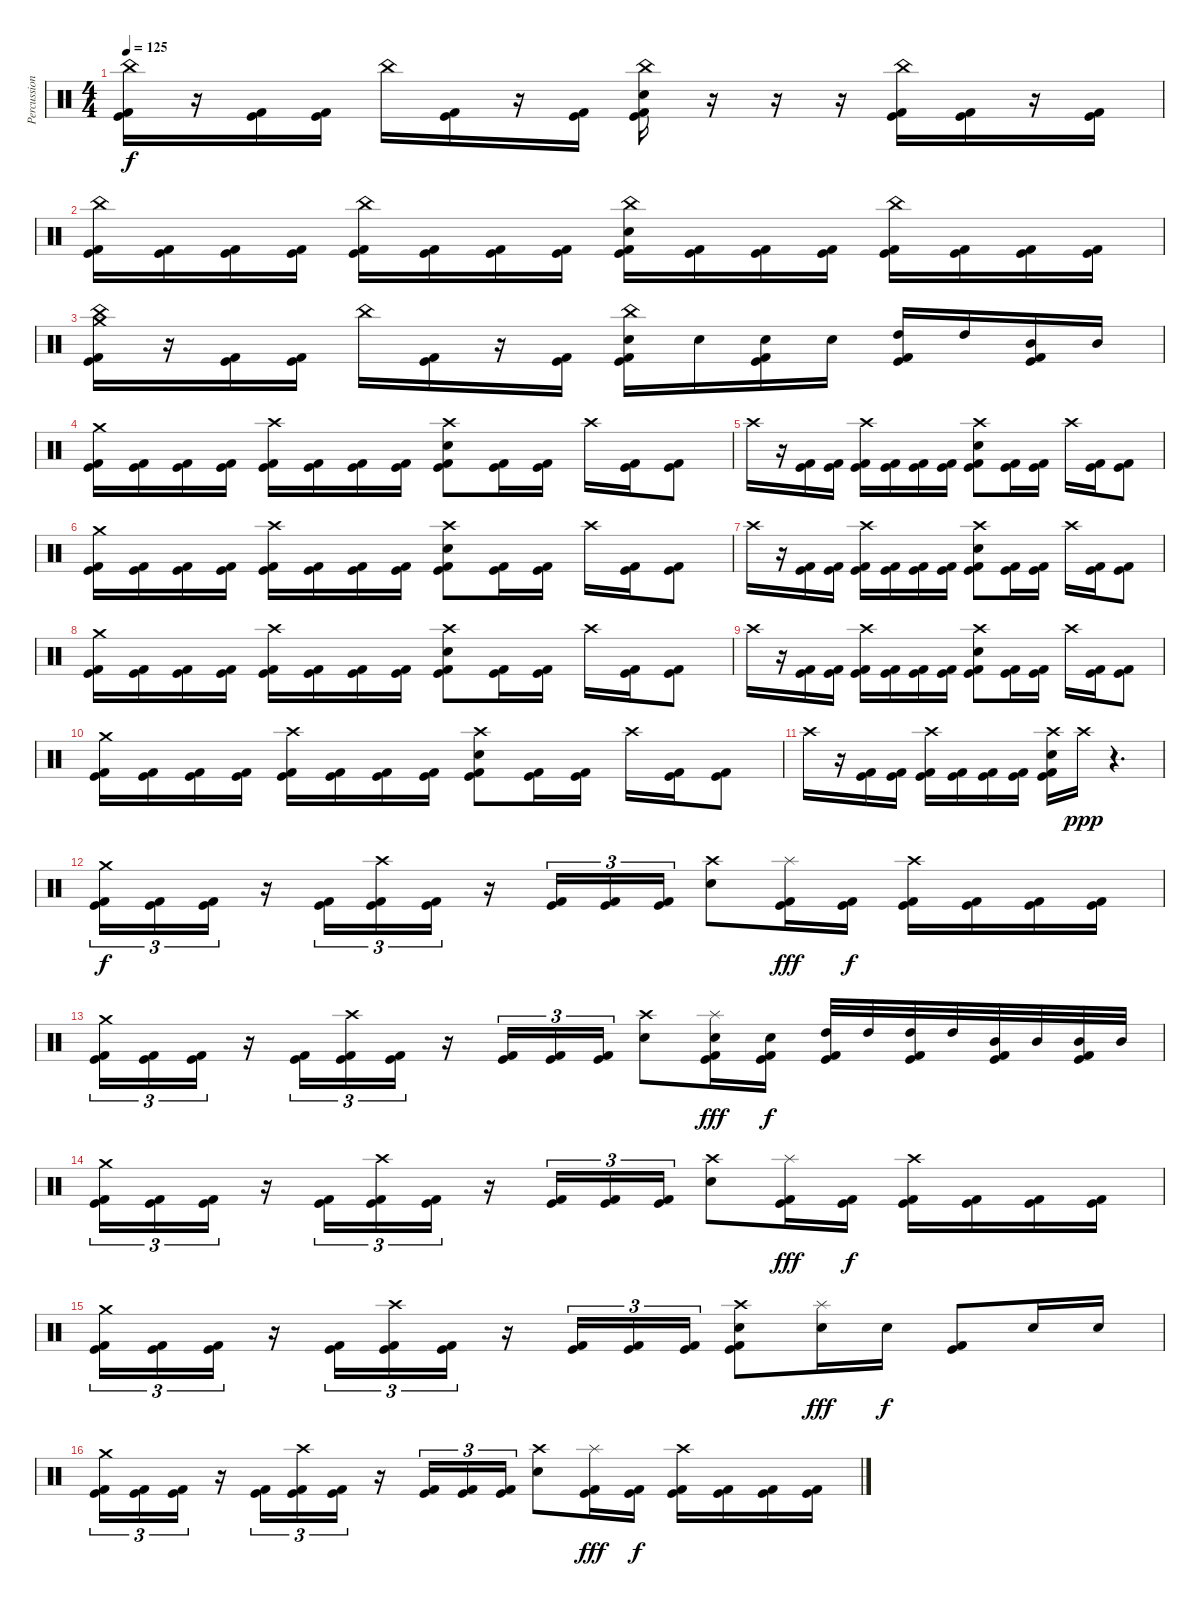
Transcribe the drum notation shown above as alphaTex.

\track ("Percussion" "Percussion") {instrument percussion}
\staff {score}
\articulation defaults
\ts (4 4)
\tempo 125
\clef neutral
\ks c
("China (hit)" "Kick (hit) 2" "Kick (hit)").16{dy f} r.16 ("Kick (hit) 2" "Kick (hit)").16 ("Kick (hit) 2" "Kick (hit)").16 "China (hit)".16 ("Kick (hit) 2" "Kick (hit)").16 r.16 ("Kick (hit) 2" "Kick (hit)").16 ("China (hit)" "Snare (hit) 2" "Kick (hit) 2" "Kick (hit)").16 r.16 r.16 r.16 ("China (hit)" "Kick (hit)" "Kick (hit) 2").16 ("Kick (hit)" "Kick (hit) 2").16 r.16 ("Kick (hit)" "Kick (hit) 2").16 |
("China (hit)" "Kick (hit) 2" "Kick (hit)").16 ("Kick (hit) 2" "Kick (hit)").16 ("Kick (hit) 2" "Kick (hit)").16 ("Kick (hit) 2" "Kick (hit)").16 ("China (hit)" "Kick (hit) 2" "Kick (hit)").16 ("Kick (hit) 2" "Kick (hit)").16 ("Kick (hit) 2" "Kick (hit)").16 ("Kick (hit) 2" "Kick (hit)").16 ("China (hit)" "Snare (hit) 2" "Kick (hit) 2" "Kick (hit)").16 ("Kick (hit) 2" "Kick (hit)").16 ("Kick (hit) 2" "Kick (hit)").16 ("Kick (hit) 2" "Kick (hit)").16 ("China (hit)" "Kick (hit) 2" "Kick (hit)").16 ("Kick (hit) 2" "Kick (hit)").16 ("Kick (hit) 2" "Kick (hit)").16 ("Kick (hit) 2" "Kick (hit)").16 |
("China (hit)" "Crash medium (hit)" "Kick (hit) 2" "Kick (hit)").16 r.16 ("Kick (hit) 2" "Kick (hit)").16 ("Kick (hit) 2" "Kick (hit)").16 "China (hit)".16 ("Kick (hit) 2" "Kick (hit)").16 r.16 ("Kick (hit) 2" "Kick (hit)").16 ("China (hit)" "Snare (hit) 2" "Kick (hit) 2" "Kick (hit)").16 "Snare (hit) 2".16 ("Snare (hit) 2" "Kick (hit) 2" "Kick (hit)").16 "Snare (hit) 2".16 ("High Tom (hit)" "Kick (hit) 2" "Kick (hit)").16 "High Tom (hit)".16 ("Mid Tom (hit)" "Kick (hit) 2" "Kick (hit)").16 "Mid Tom (hit)".16 |
("Crash medium (hit)" "Kick (hit)" "Kick (hit) 2").16 ("Kick (hit)" "Kick (hit) 2").16 ("Kick (hit)" "Kick (hit) 2").16 ("Kick (hit)" "Kick (hit) 2").16 ("Crash high (hit)" "Kick (hit)" "Kick (hit) 2").16 ("Kick (hit)" "Kick (hit) 2").16 ("Kick (hit)" "Kick (hit) 2").16 ("Kick (hit)" "Kick (hit) 2").16 ("Crash high (hit)" "Snare (hit) 2" "Kick (hit)" "Kick (hit) 2").8 ("Kick (hit)" "Kick (hit) 2").16 ("Kick (hit)" "Kick (hit) 2").16 "Crash high (hit)".16 ("Kick (hit)" "Kick (hit) 2").16 ("Kick (hit)" "Kick (hit) 2").8 |
"Crash high (hit)".16 r.16 ("Kick (hit)" "Kick (hit) 2").16 ("Kick (hit)" "Kick (hit) 2").16 ("Crash high (hit)" "Kick (hit)" "Kick (hit) 2").16 ("Kick (hit)" "Kick (hit) 2").16 ("Kick (hit)" "Kick (hit) 2").16 ("Kick (hit)" "Kick (hit) 2").16 ("Crash high (hit)" "Snare (hit) 2" "Kick (hit)" "Kick (hit) 2").8 ("Kick (hit)" "Kick (hit) 2").16 ("Kick (hit)" "Kick (hit) 2").16 "Crash high (hit)".16 ("Kick (hit)" "Kick (hit) 2").16 ("Kick (hit)" "Kick (hit) 2").8 |
("Crash medium (hit)" "Kick (hit)" "Kick (hit) 2").16 ("Kick (hit)" "Kick (hit) 2").16 ("Kick (hit)" "Kick (hit) 2").16 ("Kick (hit)" "Kick (hit) 2").16 ("Crash high (hit)" "Kick (hit)" "Kick (hit) 2").16 ("Kick (hit)" "Kick (hit) 2").16 ("Kick (hit)" "Kick (hit) 2").16 ("Kick (hit)" "Kick (hit) 2").16 ("Crash high (hit)" "Snare (hit) 2" "Kick (hit)" "Kick (hit) 2").8 ("Kick (hit)" "Kick (hit) 2").16 ("Kick (hit)" "Kick (hit) 2").16 "Crash high (hit)".16 ("Kick (hit)" "Kick (hit) 2").16 ("Kick (hit)" "Kick (hit) 2").8 |
"Crash high (hit)".16 r.16 ("Kick (hit)" "Kick (hit) 2").16 ("Kick (hit)" "Kick (hit) 2").16 ("Crash high (hit)" "Kick (hit)" "Kick (hit) 2").16 ("Kick (hit)" "Kick (hit) 2").16 ("Kick (hit)" "Kick (hit) 2").16 ("Kick (hit)" "Kick (hit) 2").16 ("Crash high (hit)" "Snare (hit) 2" "Kick (hit)" "Kick (hit) 2").8 ("Kick (hit)" "Kick (hit) 2").16 ("Kick (hit)" "Kick (hit) 2").16 "Crash high (hit)".16 ("Kick (hit)" "Kick (hit) 2").16 ("Kick (hit)" "Kick (hit) 2").8 |
("Crash medium (hit)" "Kick (hit)" "Kick (hit) 2").16 ("Kick (hit)" "Kick (hit) 2").16 ("Kick (hit)" "Kick (hit) 2").16 ("Kick (hit)" "Kick (hit) 2").16 ("Crash high (hit)" "Kick (hit)" "Kick (hit) 2").16 ("Kick (hit)" "Kick (hit) 2").16 ("Kick (hit)" "Kick (hit) 2").16 ("Kick (hit)" "Kick (hit) 2").16 ("Crash high (hit)" "Snare (hit) 2" "Kick (hit)" "Kick (hit) 2").8 ("Kick (hit)" "Kick (hit) 2").16 ("Kick (hit)" "Kick (hit) 2").16 "Crash high (hit)".16 ("Kick (hit)" "Kick (hit) 2").16 ("Kick (hit)" "Kick (hit) 2").8 |
"Crash high (hit)".16 r.16 ("Kick (hit)" "Kick (hit) 2").16 ("Kick (hit)" "Kick (hit) 2").16 ("Crash high (hit)" "Kick (hit)" "Kick (hit) 2").16 ("Kick (hit)" "Kick (hit) 2").16 ("Kick (hit)" "Kick (hit) 2").16 ("Kick (hit)" "Kick (hit) 2").16 ("Crash high (hit)" "Snare (hit) 2" "Kick (hit)" "Kick (hit) 2").8 ("Kick (hit)" "Kick (hit) 2").16 ("Kick (hit)" "Kick (hit) 2").16 "Crash high (hit)".16 ("Kick (hit)" "Kick (hit) 2").16 ("Kick (hit)" "Kick (hit) 2").8 |
("Crash medium (hit)" "Kick (hit)" "Kick (hit) 2").16 ("Kick (hit)" "Kick (hit) 2").16 ("Kick (hit)" "Kick (hit) 2").16 ("Kick (hit)" "Kick (hit) 2").16 ("Crash high (hit)" "Kick (hit)" "Kick (hit) 2").16 ("Kick (hit)" "Kick (hit) 2").16 ("Kick (hit)" "Kick (hit) 2").16 ("Kick (hit)" "Kick (hit) 2").16 ("Crash high (hit)" "Snare (hit) 2" "Kick (hit)" "Kick (hit) 2").8 ("Kick (hit)" "Kick (hit) 2").16 ("Kick (hit)" "Kick (hit) 2").16 "Crash high (hit)".16 ("Kick (hit)" "Kick (hit) 2").16 ("Kick (hit)" "Kick (hit) 2").8 |
"Crash high (hit)".16 r.16 ("Kick (hit)" "Kick (hit) 2").16 ("Kick (hit)" "Kick (hit) 2").16 ("Crash high (hit)" "Kick (hit)" "Kick (hit) 2").16 ("Kick (hit)" "Kick (hit) 2").16 ("Kick (hit)" "Kick (hit) 2").16 ("Kick (hit)" "Kick (hit) 2").16 ("Crash high (hit)" "Snare (hit) 2" "Kick (hit)" "Kick (hit) 2").16 "Crash high (hit)".16{dy ppp} r.4{d} |
("Crash medium (hit)" "Kick (hit)" "Kick (hit) 2").16{tu (3 2) dy f volume 16} ("Kick (hit)" "Kick (hit) 2").16{tu (3 2)} ("Kick (hit)" "Kick (hit) 2").16{tu (3 2)} r.16 ("Kick (hit)" "Kick (hit) 2").16{tu (3 2)} ("Crash high (hit)" "Kick (hit)" "Kick (hit) 2").16{tu (3 2)} ("Kick (hit)" "Kick (hit) 2").16{tu (3 2)} r.16 ("Kick (hit)" "Kick (hit) 2").16{tu (3 2)} ("Kick (hit)" "Kick (hit) 2").16{tu (3 2)} ("Kick (hit)" "Kick (hit) 2").16{tu (3 2)} ("Crash high (hit)" "Snare (hit) 2").8 ("Splash (hit)" "Kick (hit)" "Kick (hit) 2").16{dy fff} ("Kick (hit)" "Kick (hit) 2").16{dy f} ("Crash high (hit)" "Kick (hit)" "Kick (hit) 2").16 ("Kick (hit)" "Kick (hit) 2").16 ("Kick (hit)" "Kick (hit) 2").16 ("Kick (hit)" "Kick (hit) 2").16 |
("Crash medium (hit)" "Kick (hit)" "Kick (hit) 2").16{tu (3 2)} ("Kick (hit)" "Kick (hit) 2").16{tu (3 2)} ("Kick (hit)" "Kick (hit) 2").16{tu (3 2)} r.16 ("Kick (hit)" "Kick (hit) 2").16{tu (3 2)} ("Crash high (hit)" "Kick (hit)" "Kick (hit) 2").16{tu (3 2)} ("Kick (hit)" "Kick (hit) 2").16{tu (3 2)} r.16 ("Kick (hit)" "Kick (hit) 2").16{tu (3 2)} ("Kick (hit)" "Kick (hit) 2").16{tu (3 2)} ("Kick (hit)" "Kick (hit) 2").16{tu (3 2)} ("Crash high (hit)" "Snare (hit) 2").8 ("Splash (hit)" "Snare (hit) 2" "Kick (hit)" "Kick (hit) 2").16{dy fff} ("Snare (hit) 2" "Kick (hit)" "Kick (hit) 2").16{dy f} ("High Tom (hit)" "Kick (hit)" "Kick (hit) 2").32 "High Tom (hit)".32 ("High Tom (hit)" "Kick (hit)" "Kick (hit) 2").32 "High Tom (hit)".32 ("Mid Tom (hit)" "Kick (hit)" "Kick (hit) 2").32 "Mid Tom (hit)".32 ("Mid Tom (hit)" "Kick (hit)" "Kick (hit) 2").32 "Mid Tom (hit)".32 |
("Crash medium (hit)" "Kick (hit)" "Kick (hit) 2").16{tu (3 2)} ("Kick (hit)" "Kick (hit) 2").16{tu (3 2)} ("Kick (hit)" "Kick (hit) 2").16{tu (3 2)} r.16 ("Kick (hit)" "Kick (hit) 2").16{tu (3 2)} ("Crash high (hit)" "Kick (hit)" "Kick (hit) 2").16{tu (3 2)} ("Kick (hit)" "Kick (hit) 2").16{tu (3 2)} r.16 ("Kick (hit)" "Kick (hit) 2").16{tu (3 2)} ("Kick (hit)" "Kick (hit) 2").16{tu (3 2)} ("Kick (hit)" "Kick (hit) 2").16{tu (3 2)} ("Crash high (hit)" "Snare (hit) 2").8 ("Splash (hit)" "Kick (hit)" "Kick (hit) 2").16{dy fff} ("Kick (hit)" "Kick (hit) 2").16{dy f} ("Crash high (hit)" "Kick (hit)" "Kick (hit) 2").16 ("Kick (hit)" "Kick (hit) 2").16 ("Kick (hit)" "Kick (hit) 2").16 ("Kick (hit)" "Kick (hit) 2").16 |
("Crash medium (hit)" "Kick (hit)" "Kick (hit) 2").16{tu (3 2)} ("Kick (hit)" "Kick (hit) 2").16{tu (3 2)} ("Kick (hit)" "Kick (hit) 2").16{tu (3 2)} r.16 ("Kick (hit)" "Kick (hit) 2").16{tu (3 2)} ("Crash high (hit)" "Kick (hit)" "Kick (hit) 2").16{tu (3 2)} ("Kick (hit)" "Kick (hit) 2").16{tu (3 2)} r.16 ("Kick (hit)" "Kick (hit) 2").16{tu (3 2)} ("Kick (hit)" "Kick (hit) 2").16{tu (3 2)} ("Kick (hit)" "Kick (hit) 2").16{tu (3 2)} ("Crash high (hit)" "Snare (hit) 2" "Kick (hit)" "Kick (hit) 2").8 ("Splash (hit)" "Snare (hit) 2").16{dy fff} "Snare (hit) 2".16{dy f} ("Kick (hit)" "Kick (hit) 2").8 "Snare (hit) 2".16 "Snare (hit) 2".16 |
("Crash medium (hit)" "Kick (hit)" "Kick (hit) 2").16{tu (3 2)} ("Kick (hit)" "Kick (hit) 2").16{tu (3 2)} ("Kick (hit)" "Kick (hit) 2").16{tu (3 2)} r.16 ("Kick (hit)" "Kick (hit) 2").16{tu (3 2)} ("Crash high (hit)" "Kick (hit)" "Kick (hit) 2").16{tu (3 2)} ("Kick (hit)" "Kick (hit) 2").16{tu (3 2)} r.16 ("Kick (hit)" "Kick (hit) 2").16{tu (3 2)} ("Kick (hit)" "Kick (hit) 2").16{tu (3 2)} ("Kick (hit)" "Kick (hit) 2").16{tu (3 2)} ("Crash high (hit)" "Snare (hit) 2").8 ("Splash (hit)" "Kick (hit)" "Kick (hit) 2").16{dy fff} ("Kick (hit)" "Kick (hit) 2").16{dy f} ("Crash high (hit)" "Kick (hit)" "Kick (hit) 2").16 ("Kick (hit)" "Kick (hit) 2").16 ("Kick (hit)" "Kick (hit) 2").16 ("Kick (hit)" "Kick (hit) 2").16
